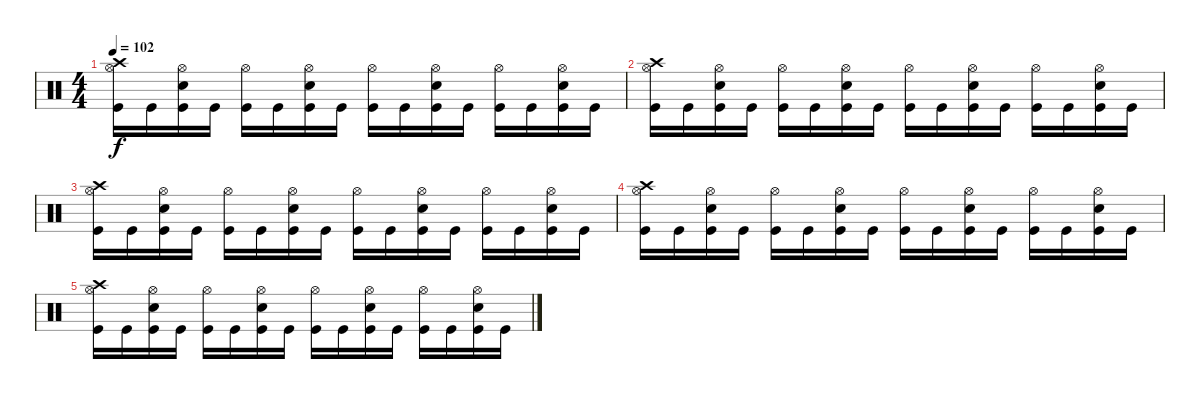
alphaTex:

\track "" {instrument percussion}
\staff {score}
\articulation defaults
\ts (4 4)
\tempo 102
\clef neutral
\ks c
("Crash high (hit)" "Kick (hit)" "Hi-Hat (open)").16{dy f} "Kick (hit)".16 ("Kick (hit)" "Electric Snare (hit)" "Hi-Hat (open)").16 "Kick (hit)".16 ("Kick (hit)" "Hi-Hat (open)").16 "Kick (hit)".16 ("Kick (hit)" "Electric Snare (hit)" "Hi-Hat (open)").16 "Kick (hit)".16 ("Hi-Hat (open)" "Kick (hit)").16 "Kick (hit)".16 ("Kick (hit)" "Hi-Hat (open)" "Electric Snare (hit)").16 "Kick (hit)".16 ("Hi-Hat (open)" "Kick (hit)").16 "Kick (hit)".16 ("Kick (hit)" "Hi-Hat (open)" "Electric Snare (hit)").16 "Kick (hit)".16 |
("Crash high (hit)" "Kick (hit)" "Hi-Hat (open)").16 "Kick (hit)".16 ("Kick (hit)" "Electric Snare (hit)" "Hi-Hat (open)").16 "Kick (hit)".16 ("Kick (hit)" "Hi-Hat (open)").16 "Kick (hit)".16 ("Kick (hit)" "Electric Snare (hit)" "Hi-Hat (open)").16 "Kick (hit)".16 ("Hi-Hat (open)" "Kick (hit)").16 "Kick (hit)".16 ("Kick (hit)" "Hi-Hat (open)" "Electric Snare (hit)").16 "Kick (hit)".16 ("Hi-Hat (open)" "Kick (hit)").16 "Kick (hit)".16 ("Kick (hit)" "Hi-Hat (open)" "Electric Snare (hit)").16 "Kick (hit)".16 |
("Crash high (hit)" "Kick (hit)" "Hi-Hat (open)").16 "Kick (hit)".16 ("Kick (hit)" "Electric Snare (hit)" "Hi-Hat (open)").16 "Kick (hit)".16 ("Kick (hit)" "Hi-Hat (open)").16 "Kick (hit)".16 ("Kick (hit)" "Electric Snare (hit)" "Hi-Hat (open)").16 "Kick (hit)".16 ("Hi-Hat (open)" "Kick (hit)").16 "Kick (hit)".16 ("Kick (hit)" "Hi-Hat (open)" "Electric Snare (hit)").16 "Kick (hit)".16 ("Hi-Hat (open)" "Kick (hit)").16 "Kick (hit)".16 ("Kick (hit)" "Hi-Hat (open)" "Electric Snare (hit)").16 "Kick (hit)".16 |
("Crash high (hit)" "Kick (hit)" "Hi-Hat (open)").16 "Kick (hit)".16 ("Kick (hit)" "Electric Snare (hit)" "Hi-Hat (open)").16 "Kick (hit)".16 ("Kick (hit)" "Hi-Hat (open)").16 "Kick (hit)".16 ("Kick (hit)" "Electric Snare (hit)" "Hi-Hat (open)").16 "Kick (hit)".16 ("Hi-Hat (open)" "Kick (hit)").16 "Kick (hit)".16 ("Kick (hit)" "Hi-Hat (open)" "Electric Snare (hit)").16 "Kick (hit)".16 ("Hi-Hat (open)" "Kick (hit)").16 "Kick (hit)".16 ("Kick (hit)" "Hi-Hat (open)" "Electric Snare (hit)").16 "Kick (hit)".16 |
("Crash high (hit)" "Kick (hit)" "Hi-Hat (open)").16 "Kick (hit)".16 ("Kick (hit)" "Electric Snare (hit)" "Hi-Hat (open)").16 "Kick (hit)".16 ("Kick (hit)" "Hi-Hat (open)").16 "Kick (hit)".16 ("Kick (hit)" "Electric Snare (hit)" "Hi-Hat (open)").16 "Kick (hit)".16 ("Hi-Hat (open)" "Kick (hit)").16 "Kick (hit)".16 ("Kick (hit)" "Hi-Hat (open)" "Electric Snare (hit)").16 "Kick (hit)".16 ("Hi-Hat (open)" "Kick (hit)").16 "Kick (hit)".16 ("Kick (hit)" "Hi-Hat (open)" "Electric Snare (hit)").16 "Kick (hit)".16
